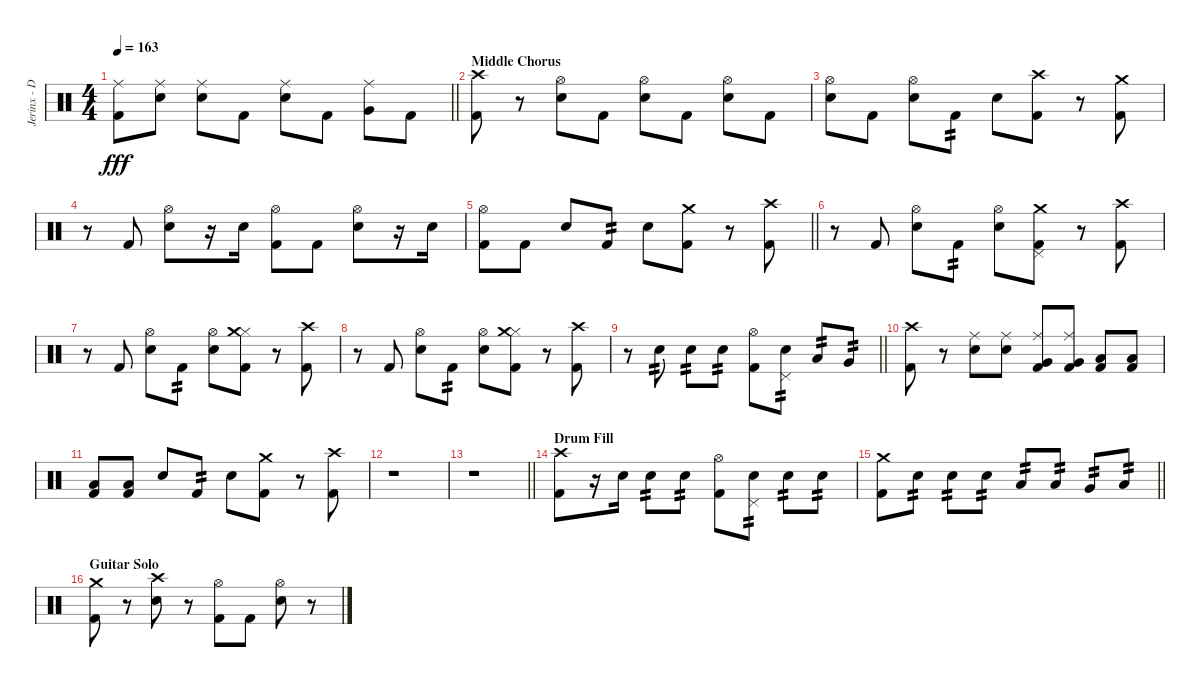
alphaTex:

\track ("Jerinx - Drum" "Jerinx - D") {instrument percussion}
\staff {score}
\articulation defaults
\ts (4 4)
\tempo 163
\clef neutral
\barLineRight lightlight
\ks c
("Kick (hit) 2" "Ride (middle)").8{dy fff} ("Snare (hit) 2" "Ride (middle)").8 ("Snare (hit) 2" "Ride (middle)").8 "Kick (hit) 2".8 ("Snare (hit) 2" "Ride (middle)").8 "Kick (hit) 2".8 ("Very Low Tom (hit)" "Ride (middle)").8 "Kick (hit) 2".8 |
\section ("" "Middle Chorus")
("Kick (hit) 2" "Crash high (hit)").8 r.8 ("Hi-Hat (open)" "Snare (hit) 2").8 "Kick (hit) 2".8 ("Hi-Hat (open)" "Snare (hit) 2").8 "Kick (hit) 2".8 ("Hi-Hat (open)" "Snare (hit) 2").8 "Kick (hit) 2".8 |
("Hi-Hat (open)" "Snare (hit) 2").8 "Kick (hit) 2".8 ("Hi-Hat (open)" "Snare (hit) 2").8 "Kick (hit) 2".8{tp 2} "Snare (hit) 2".8 ("Kick (hit) 2" "Crash high (hit)").8 r.8 ("Kick (hit) 2" "Crash medium (hit)").8 |
r.8 "Kick (hit) 2".8 ("Hi-Hat (open)" "Snare (hit) 2").8 r.16 "Snare (hit) 2".16 ("Hi-Hat (open)" "Kick (hit) 2").8 "Kick (hit) 2".8 ("Hi-Hat (open)" "Snare (hit) 2").8 r.16 "Snare (hit) 2".16 |
\barLineRight lightlight
("Hi-Hat (open)" "Kick (hit) 2").8 "Kick (hit) 2".8 "Snare (hit) 2".8 "Kick (hit) 2".8{tp 2} "Snare (hit) 2".8 ("Kick (hit) 2" "Crash medium (hit)").8 r.8 ("Kick (hit) 2" "Crash high (hit)").8 |
r.8 "Kick (hit) 2".8 ("Hi-Hat (open)" "Snare (hit) 2").8 "Kick (hit) 2".8{tp 2} ("Hi-Hat (open)" "Snare (hit) 2").8 ("Pedal Hi-Hat (hit)" "Kick (hit) 2" "Crash medium (hit)").8 r.8 ("Kick (hit) 2" "Crash high (hit)").8 |
r.8 "Kick (hit) 2".8 ("Hi-Hat (open)" "Snare (hit) 2").8 "Kick (hit) 2".8{tp 2} ("Hi-Hat (open)" "Snare (hit) 2").8 ("Hi-Hat (closed)" "Kick (hit) 2" "Crash medium (hit)").8 r.8 ("Kick (hit) 2" "Crash high (hit)").8 |
r.8 "Kick (hit) 2".8 ("Hi-Hat (open)" "Snare (hit) 2").8 "Kick (hit) 2".8{tp 2} ("Hi-Hat (open)" "Snare (hit) 2").8 ("Hi-Hat (closed)" "Kick (hit) 2" "Crash medium (hit)").8 r.8 ("Kick (hit) 2" "Crash high (hit)").8 |
\barLineRight lightlight
r.8 "Snare (hit) 2".8{tp 2} "Snare (hit) 2".8{tp 2} "Snare (hit) 2".8{tp 2} ("Hi-Hat (open)" "Kick (hit) 2").8 ("Pedal Hi-Hat (hit)" "Snare (hit) 2").8{tp 2} "Low Tom (hit)".8{tp 2} "Very Low Tom (hit)".8{tp 2} |
("Kick (hit) 2" "Crash high (hit)").8 r.8 ("Snare (hit) 2" "Ride (middle)").8 ("Snare (hit) 2" "Ride (middle)").8 ("Kick (hit) 2" "Very Low Tom (hit)" "Ride (middle)").8 ("Kick (hit) 2" "Very Low Tom (hit)" "Ride (middle)").8 ("Kick (hit) 2" "Low Tom (hit)").8 ("Kick (hit) 2" "Low Tom (hit)").8 |
("Kick (hit) 2" "Low Floor Tom (hit)").8 ("Kick (hit) 2" "Low Floor Tom (hit)").8 "Snare (hit) 2".8 "Kick (hit) 2".8{tp 2} "Snare (hit) 2".8 ("Kick (hit) 2" "Crash medium (hit)").8 r.8 ("Kick (hit) 2" "Crash high (hit)").8 |
r.1 |
\barLineRight lightlight
r.1 |
\section ("" "Drum Fill")
("Kick (hit) 2" "Crash high (hit)").8 r.16 "Snare (hit) 2".16 "Snare (hit) 2".8{tp 2} "Snare (hit) 2".8{tp 2} ("Hi-Hat (open)" "Kick (hit) 2").8 ("Pedal Hi-Hat (hit)" "Snare (hit) 2").8{tp 2} "Snare (hit) 2".8{tp 2} "Snare (hit) 2".8{tp 2} |
\barLineRight lightlight
("Kick (hit) 2" "Crash medium (hit)").8 "Snare (hit) 2".8{tp 2} "Snare (hit) 2".8{tp 2} "Snare (hit) 2".8{tp 2} "Low Tom (hit)".8{tp 2} "Low Tom (hit)".8{tp 2} "Very Low Tom (hit)".8{tp 2} "Low Floor Tom (hit)".8{tp 2} |
\section ("" "Guitar Solo")
("Kick (hit) 2" "Crash medium (hit)").8 r.8 ("Snare (hit) 2" "Crash high (hit)").8 r.8 ("Hi-Hat (open)" "Kick (hit) 2").8 "Kick (hit) 2".8 ("Hi-Hat (open)" "Snare (hit) 2").8 r.8
